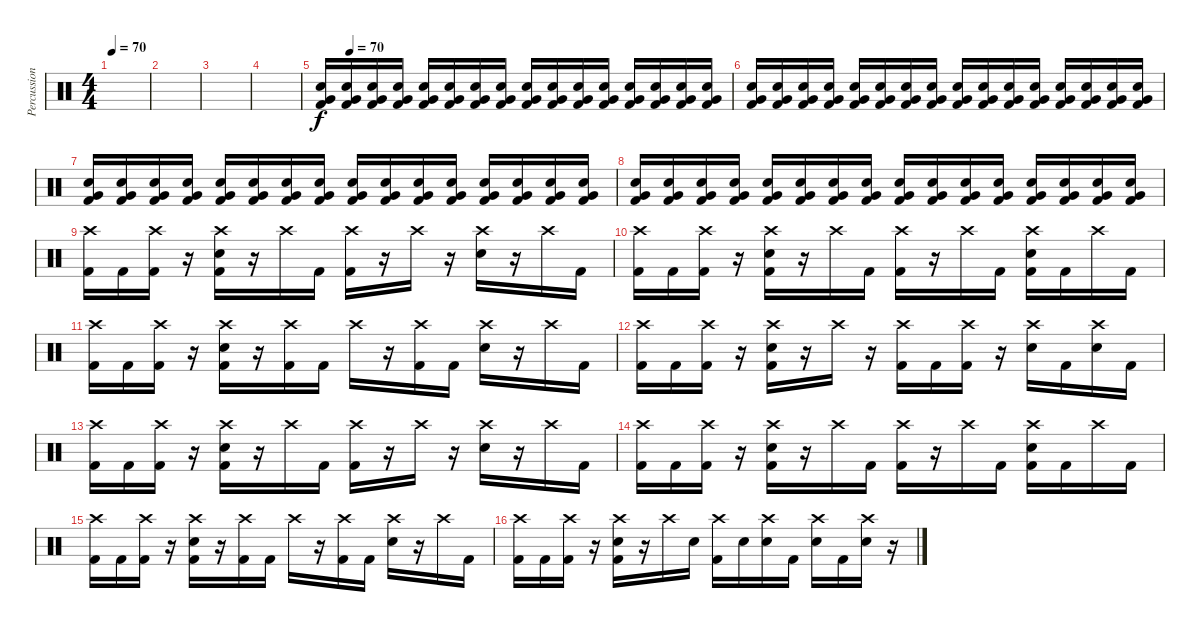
\track ("Percussion" "Percussion") {instrument percussion}
\staff {score}
\articulation defaults
\ts (4 4)
\tempo 70
\clef neutral
\ks c
|
|
|
|
\tempo (70 0.0625)
("Snare (hit) 2" "Very Low Tom (hit)" "Kick (hit) 2").16{volume 13} ("Snare (hit) 2" "Very Low Tom (hit)" "Kick (hit) 2").16 ("Snare (hit) 2" "Very Low Tom (hit)" "Kick (hit) 2").16 ("Snare (hit) 2" "Very Low Tom (hit)" "Kick (hit) 2").16 ("Snare (hit) 2" "Very Low Tom (hit)" "Kick (hit) 2").16 ("Snare (hit) 2" "Very Low Tom (hit)" "Kick (hit) 2").16 ("Snare (hit) 2" "Very Low Tom (hit)" "Kick (hit) 2").16 ("Snare (hit) 2" "Very Low Tom (hit)" "Kick (hit) 2").16 ("Snare (hit) 2" "Very Low Tom (hit)" "Kick (hit) 2").16 ("Snare (hit) 2" "Very Low Tom (hit)" "Kick (hit) 2").16 ("Snare (hit) 2" "Very Low Tom (hit)" "Kick (hit) 2").16 ("Snare (hit) 2" "Very Low Tom (hit)" "Kick (hit) 2").16 ("Snare (hit) 2" "Very Low Tom (hit)" "Kick (hit) 2").16 ("Snare (hit) 2" "Very Low Tom (hit)" "Kick (hit) 2").16 ("Snare (hit) 2" "Very Low Tom (hit)" "Kick (hit) 2").16 ("Snare (hit) 2" "Very Low Tom (hit)" "Kick (hit) 2").16 |
("Snare (hit) 2" "Very Low Tom (hit)" "Kick (hit) 2").16 ("Snare (hit) 2" "Very Low Tom (hit)" "Kick (hit) 2").16 ("Snare (hit) 2" "Very Low Tom (hit)" "Kick (hit) 2").16 ("Snare (hit) 2" "Very Low Tom (hit)" "Kick (hit) 2").16 ("Snare (hit) 2" "Very Low Tom (hit)" "Kick (hit) 2").16 ("Snare (hit) 2" "Very Low Tom (hit)" "Kick (hit) 2").16 ("Snare (hit) 2" "Very Low Tom (hit)" "Kick (hit) 2").16 ("Snare (hit) 2" "Very Low Tom (hit)" "Kick (hit) 2").16 ("Snare (hit) 2" "Very Low Tom (hit)" "Kick (hit) 2").16 ("Snare (hit) 2" "Very Low Tom (hit)" "Kick (hit) 2").16 ("Snare (hit) 2" "Very Low Tom (hit)" "Kick (hit) 2").16 ("Snare (hit) 2" "Very Low Tom (hit)" "Kick (hit) 2").16 ("Snare (hit) 2" "Very Low Tom (hit)" "Kick (hit) 2").16 ("Snare (hit) 2" "Very Low Tom (hit)" "Kick (hit) 2").16 ("Snare (hit) 2" "Very Low Tom (hit)" "Kick (hit) 2").16 ("Snare (hit) 2" "Very Low Tom (hit)" "Kick (hit) 2").16 |
("Snare (hit) 2" "Very Low Tom (hit)" "Kick (hit) 2").16 ("Snare (hit) 2" "Very Low Tom (hit)" "Kick (hit) 2").16 ("Snare (hit) 2" "Very Low Tom (hit)" "Kick (hit) 2").16 ("Snare (hit) 2" "Very Low Tom (hit)" "Kick (hit) 2").16 ("Snare (hit) 2" "Very Low Tom (hit)" "Kick (hit) 2").16 ("Snare (hit) 2" "Very Low Tom (hit)" "Kick (hit) 2").16 ("Snare (hit) 2" "Very Low Tom (hit)" "Kick (hit) 2").16 ("Snare (hit) 2" "Very Low Tom (hit)" "Kick (hit) 2").16 ("Snare (hit) 2" "Very Low Tom (hit)" "Kick (hit) 2").16 ("Snare (hit) 2" "Very Low Tom (hit)" "Kick (hit) 2").16 ("Snare (hit) 2" "Very Low Tom (hit)" "Kick (hit) 2").16 ("Snare (hit) 2" "Very Low Tom (hit)" "Kick (hit) 2").16 ("Snare (hit) 2" "Very Low Tom (hit)" "Kick (hit) 2").16 ("Snare (hit) 2" "Very Low Tom (hit)" "Kick (hit) 2").16 ("Snare (hit) 2" "Very Low Tom (hit)" "Kick (hit) 2").16 ("Snare (hit) 2" "Very Low Tom (hit)" "Kick (hit) 2").16 |
("Snare (hit) 2" "Very Low Tom (hit)" "Kick (hit) 2").16 ("Snare (hit) 2" "Very Low Tom (hit)" "Kick (hit) 2").16 ("Snare (hit) 2" "Very Low Tom (hit)" "Kick (hit) 2").16 ("Snare (hit) 2" "Very Low Tom (hit)" "Kick (hit) 2").16 ("Snare (hit) 2" "Very Low Tom (hit)" "Kick (hit) 2").16 ("Snare (hit) 2" "Very Low Tom (hit)" "Kick (hit) 2").16 ("Snare (hit) 2" "Very Low Tom (hit)" "Kick (hit) 2").16 ("Snare (hit) 2" "Very Low Tom (hit)" "Kick (hit) 2").16 ("Snare (hit) 2" "Very Low Tom (hit)" "Kick (hit) 2").16 ("Snare (hit) 2" "Very Low Tom (hit)" "Kick (hit) 2").16 ("Snare (hit) 2" "Very Low Tom (hit)" "Kick (hit) 2").16 ("Snare (hit) 2" "Very Low Tom (hit)" "Kick (hit) 2").16 ("Snare (hit) 2" "Very Low Tom (hit)" "Kick (hit) 2").16 ("Snare (hit) 2" "Very Low Tom (hit)" "Kick (hit) 2").16 ("Snare (hit) 2" "Very Low Tom (hit)" "Kick (hit) 2").16 ("Snare (hit) 2" "Very Low Tom (hit)" "Kick (hit) 2").16 |
("Crash high (hit)" "Kick (hit) 2").16 "Kick (hit) 2".16 ("Crash high (hit)" "Kick (hit) 2").16 r.16 ("Crash high (hit)" "Snare (hit) 2" "Kick (hit) 2").16 r.16 "Crash high (hit)".16 "Kick (hit) 2".16 ("Crash high (hit)" "Kick (hit) 2").16 r.16 "Crash high (hit)".16 r.16 ("Crash high (hit)" "Snare (hit) 2").16 r.16 "Crash high (hit)".16 "Kick (hit) 2".16 |
("Crash high (hit)" "Kick (hit) 2").16 "Kick (hit) 2".16 ("Crash high (hit)" "Kick (hit) 2").16 r.16 ("Crash high (hit)" "Snare (hit) 2" "Kick (hit) 2").16 r.16 "Crash high (hit)".16 "Kick (hit) 2".16 ("Crash high (hit)" "Kick (hit) 2").16 r.16 "Crash high (hit)".16 "Kick (hit) 2".16 ("Crash high (hit)" "Snare (hit) 2" "Kick (hit) 2").16 "Kick (hit) 2".16 "Crash high (hit)".16 "Kick (hit) 2".16 |
("Crash high (hit)" "Kick (hit) 2").16 "Kick (hit) 2".16 ("Crash high (hit)" "Kick (hit) 2").16 r.16 ("Crash high (hit)" "Snare (hit) 2" "Kick (hit) 2").16 r.16 ("Crash high (hit)" "Kick (hit) 2").16 "Kick (hit) 2".16 "Crash high (hit)".16 r.16 ("Crash high (hit)" "Kick (hit) 2").16 "Kick (hit) 2".16 ("Crash high (hit)" "Snare (hit) 2").16 r.16 "Crash high (hit)".16 "Kick (hit) 2".16 |
("Crash high (hit)" "Kick (hit) 2").16 "Kick (hit) 2".16 ("Crash high (hit)" "Kick (hit) 2").16 r.16 ("Crash high (hit)" "Snare (hit) 2" "Kick (hit) 2").16 r.16 "Crash high (hit)".16 r.16 ("Crash high (hit)" "Kick (hit) 2").16 "Kick (hit) 2".16 ("Crash high (hit)" "Kick (hit) 2").16 r.16 ("Crash high (hit)" "Snare (hit) 2").16 "Kick (hit) 2".16 ("Crash high (hit)" "Snare (hit) 2").16 "Kick (hit) 2".16 |
("Crash high (hit)" "Kick (hit) 2").16 "Kick (hit) 2".16 ("Crash high (hit)" "Kick (hit) 2").16 r.16 ("Crash high (hit)" "Snare (hit) 2" "Kick (hit) 2").16 r.16 "Crash high (hit)".16 "Kick (hit) 2".16 ("Crash high (hit)" "Kick (hit) 2").16 r.16 "Crash high (hit)".16 r.16 ("Crash high (hit)" "Snare (hit) 2").16 r.16 "Crash high (hit)".16 "Kick (hit) 2".16 |
("Crash high (hit)" "Kick (hit) 2").16 "Kick (hit) 2".16 ("Crash high (hit)" "Kick (hit) 2").16 r.16 ("Crash high (hit)" "Snare (hit) 2" "Kick (hit) 2").16 r.16 "Crash high (hit)".16 "Kick (hit) 2".16 ("Crash high (hit)" "Kick (hit) 2").16 r.16 "Crash high (hit)".16 "Kick (hit) 2".16 ("Crash high (hit)" "Snare (hit) 2" "Kick (hit) 2").16 "Kick (hit) 2".16 "Crash high (hit)".16 "Kick (hit) 2".16 |
("Crash high (hit)" "Kick (hit) 2").16 "Kick (hit) 2".16 ("Crash high (hit)" "Kick (hit) 2").16 r.16 ("Crash high (hit)" "Snare (hit) 2" "Kick (hit) 2").16 r.16 ("Crash high (hit)" "Kick (hit) 2").16 "Kick (hit) 2".16 "Crash high (hit)".16 r.16 ("Crash high (hit)" "Kick (hit) 2").16 "Kick (hit) 2".16 ("Crash high (hit)" "Snare (hit) 2").16 r.16 "Crash high (hit)".16 "Kick (hit) 2".16 |
("Crash high (hit)" "Kick (hit) 2").16 "Kick (hit) 2".16 ("Crash high (hit)" "Kick (hit) 2").16 r.16 ("Crash high (hit)" "Snare (hit) 2" "Kick (hit) 2").16 r.16 "Crash high (hit)".16 "Snare (hit) 2".16 ("Crash high (hit)" "Kick (hit) 2").16 "Snare (hit) 2".16 ("Crash high (hit)" "Snare (hit) 2").16 "Kick (hit) 2".16 ("Crash high (hit)" "Snare (hit) 2").16 "Kick (hit) 2".16 ("Crash high (hit)" "Snare (hit) 2").16 r.16
